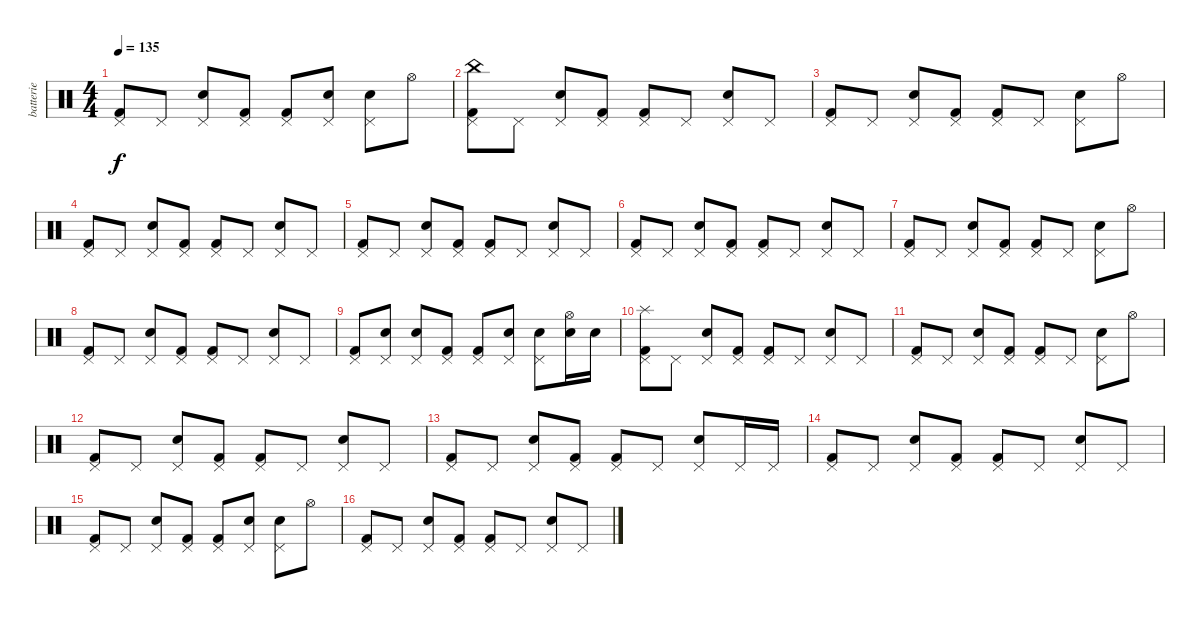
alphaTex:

\track ("batterie" "batterie") {instrument percussion}
\staff {score}
\articulation defaults
\ts (4 4)
\tempo 135
\clef neutral
\ks c
("Pedal Hi-Hat (hit)" "Kick (hit) 2").8{dy f} "Pedal Hi-Hat (hit)".8 ("Pedal Hi-Hat (hit)" "Snare (hit) 2").8 ("Pedal Hi-Hat (hit)" "Kick (hit) 2").8 ("Pedal Hi-Hat (hit)" "Kick (hit) 2").8 ("Pedal Hi-Hat (hit)" "Snare (hit) 2").8 ("Pedal Hi-Hat (hit)" "Snare (hit) 2").8 "Hi-Hat (open)".8 |
("China (hit)" "Pedal Hi-Hat (hit)" "Kick (hit) 2").8 "Pedal Hi-Hat (hit)".8 ("Pedal Hi-Hat (hit)" "Snare (hit) 2").8 ("Pedal Hi-Hat (hit)" "Kick (hit) 2").8 ("Pedal Hi-Hat (hit)" "Kick (hit) 2").8 "Pedal Hi-Hat (hit)".8 ("Pedal Hi-Hat (hit)" "Snare (hit) 2").8 "Pedal Hi-Hat (hit)".8 |
("Pedal Hi-Hat (hit)" "Kick (hit) 2").8 "Pedal Hi-Hat (hit)".8 ("Pedal Hi-Hat (hit)" "Snare (hit) 2").8 ("Pedal Hi-Hat (hit)" "Kick (hit) 2").8 ("Pedal Hi-Hat (hit)" "Kick (hit) 2").8 "Pedal Hi-Hat (hit)".8 ("Pedal Hi-Hat (hit)" "Snare (hit) 2").8 "Hi-Hat (open)".8 |
("Pedal Hi-Hat (hit)" "Kick (hit) 2").8 "Pedal Hi-Hat (hit)".8 ("Pedal Hi-Hat (hit)" "Snare (hit) 2").8 ("Pedal Hi-Hat (hit)" "Kick (hit) 2").8 ("Pedal Hi-Hat (hit)" "Kick (hit) 2").8 "Pedal Hi-Hat (hit)".8 ("Pedal Hi-Hat (hit)" "Snare (hit) 2").8 "Pedal Hi-Hat (hit)".8 |
("Pedal Hi-Hat (hit)" "Kick (hit) 2").8 "Pedal Hi-Hat (hit)".8 ("Pedal Hi-Hat (hit)" "Snare (hit) 2").8 ("Pedal Hi-Hat (hit)" "Kick (hit) 2").8 ("Pedal Hi-Hat (hit)" "Kick (hit) 2").8 "Pedal Hi-Hat (hit)".8 ("Pedal Hi-Hat (hit)" "Snare (hit) 2").8 "Pedal Hi-Hat (hit)".8 |
("Pedal Hi-Hat (hit)" "Kick (hit) 2").8 "Pedal Hi-Hat (hit)".8 ("Pedal Hi-Hat (hit)" "Snare (hit) 2").8 ("Pedal Hi-Hat (hit)" "Kick (hit) 2").8 ("Pedal Hi-Hat (hit)" "Kick (hit) 2").8 "Pedal Hi-Hat (hit)".8 ("Pedal Hi-Hat (hit)" "Snare (hit) 2").8 "Pedal Hi-Hat (hit)".8 |
("Pedal Hi-Hat (hit)" "Kick (hit) 2").8 "Pedal Hi-Hat (hit)".8 ("Pedal Hi-Hat (hit)" "Snare (hit) 2").8 ("Pedal Hi-Hat (hit)" "Kick (hit) 2").8 ("Pedal Hi-Hat (hit)" "Kick (hit) 2").8 "Pedal Hi-Hat (hit)".8 ("Pedal Hi-Hat (hit)" "Snare (hit) 2").8 "Hi-Hat (open)".8 |
("Pedal Hi-Hat (hit)" "Kick (hit) 2").8 "Pedal Hi-Hat (hit)".8 ("Pedal Hi-Hat (hit)" "Snare (hit) 2").8 ("Pedal Hi-Hat (hit)" "Kick (hit) 2").8 ("Pedal Hi-Hat (hit)" "Kick (hit) 2").8 "Pedal Hi-Hat (hit)".8 ("Pedal Hi-Hat (hit)" "Snare (hit) 2").8 "Pedal Hi-Hat (hit)".8 |
("Pedal Hi-Hat (hit)" "Kick (hit) 2").8 ("Pedal Hi-Hat (hit)" "Snare (hit) 2").8 ("Pedal Hi-Hat (hit)" "Snare (hit) 2").8 ("Pedal Hi-Hat (hit)" "Kick (hit) 2").8 ("Pedal Hi-Hat (hit)" "Kick (hit) 2").8 ("Pedal Hi-Hat (hit)" "Snare (hit) 2").8 ("Pedal Hi-Hat (hit)" "Snare (hit) 2").8 ("Hi-Hat (open)" "Snare (hit) 2").16 "Snare (hit) 2".16 |
("Splash (hit)" "Pedal Hi-Hat (hit)" "Kick (hit) 2").8 "Pedal Hi-Hat (hit)".8 ("Pedal Hi-Hat (hit)" "Snare (hit) 2").8 ("Pedal Hi-Hat (hit)" "Kick (hit) 2").8 ("Pedal Hi-Hat (hit)" "Kick (hit) 2").8 "Pedal Hi-Hat (hit)".8 ("Pedal Hi-Hat (hit)" "Snare (hit) 2").8 "Pedal Hi-Hat (hit)".8 |
("Pedal Hi-Hat (hit)" "Kick (hit) 2").8 "Pedal Hi-Hat (hit)".8 ("Pedal Hi-Hat (hit)" "Snare (hit) 2").8 ("Pedal Hi-Hat (hit)" "Kick (hit) 2").8 ("Pedal Hi-Hat (hit)" "Kick (hit) 2").8 "Pedal Hi-Hat (hit)".8 ("Pedal Hi-Hat (hit)" "Snare (hit) 2").8 "Hi-Hat (open)".8 |
("Pedal Hi-Hat (hit)" "Kick (hit) 2").8 "Pedal Hi-Hat (hit)".8 ("Pedal Hi-Hat (hit)" "Snare (hit) 2").8 ("Pedal Hi-Hat (hit)" "Kick (hit) 2").8 ("Pedal Hi-Hat (hit)" "Kick (hit) 2").8 "Pedal Hi-Hat (hit)".8 ("Pedal Hi-Hat (hit)" "Snare (hit) 2").8 "Pedal Hi-Hat (hit)".8 |
("Pedal Hi-Hat (hit)" "Kick (hit) 2").8 "Pedal Hi-Hat (hit)".8 ("Pedal Hi-Hat (hit)" "Snare (hit) 2").8 ("Pedal Hi-Hat (hit)" "Kick (hit) 2").8 ("Pedal Hi-Hat (hit)" "Kick (hit) 2").8 "Pedal Hi-Hat (hit)".8 ("Pedal Hi-Hat (hit)" "Snare (hit) 2").8 "Pedal Hi-Hat (hit)".16 "Pedal Hi-Hat (hit)".16 |
("Pedal Hi-Hat (hit)" "Kick (hit) 2").8 "Pedal Hi-Hat (hit)".8 ("Pedal Hi-Hat (hit)" "Snare (hit) 2").8 ("Pedal Hi-Hat (hit)" "Kick (hit) 2").8 ("Pedal Hi-Hat (hit)" "Kick (hit) 2").8 "Pedal Hi-Hat (hit)".8 ("Pedal Hi-Hat (hit)" "Snare (hit) 2").8 "Pedal Hi-Hat (hit)".8 |
("Pedal Hi-Hat (hit)" "Kick (hit) 2").8 "Pedal Hi-Hat (hit)".8 ("Pedal Hi-Hat (hit)" "Snare (hit) 2").8 ("Pedal Hi-Hat (hit)" "Kick (hit) 2").8 ("Pedal Hi-Hat (hit)" "Kick (hit) 2").8 ("Pedal Hi-Hat (hit)" "Snare (hit) 2").8 ("Pedal Hi-Hat (hit)" "Snare (hit) 2").8 "Hi-Hat (open)".8 |
("Pedal Hi-Hat (hit)" "Kick (hit) 2").8 "Pedal Hi-Hat (hit)".8 ("Pedal Hi-Hat (hit)" "Snare (hit) 2").8 ("Pedal Hi-Hat (hit)" "Kick (hit) 2").8 ("Pedal Hi-Hat (hit)" "Kick (hit) 2").8 "Pedal Hi-Hat (hit)".8 ("Pedal Hi-Hat (hit)" "Snare (hit) 2").8 "Pedal Hi-Hat (hit)".8
